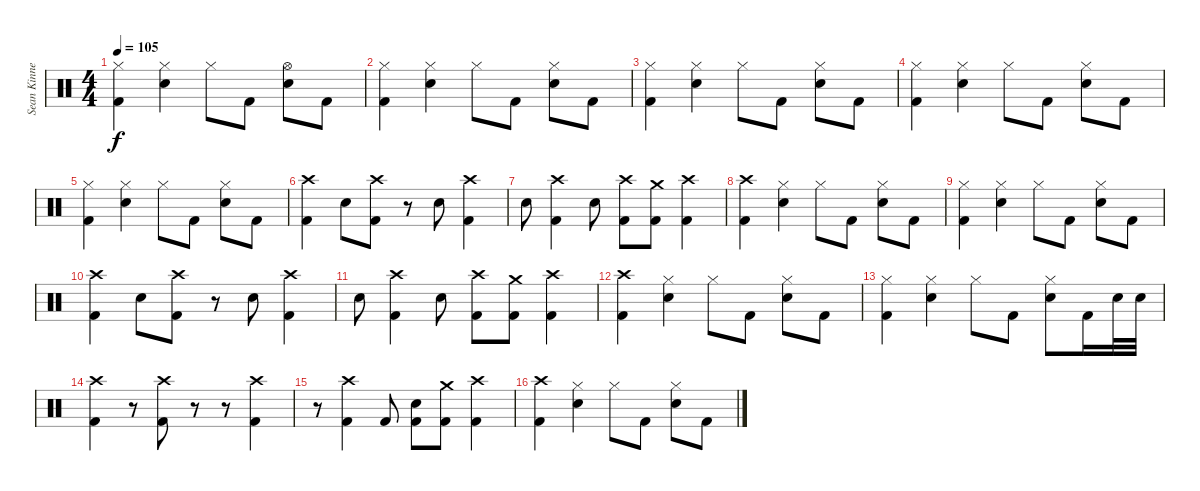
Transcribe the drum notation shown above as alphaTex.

\track ("Sean Kinney- Drums" "Sean Kinne") {instrument percussion}
\staff {score}
\articulation defaults
\ts (4 4)
\tempo 105
\clef neutral
\ks c
("Hi-Hat (closed)" "Kick (hit) 2").4{dy f} ("Hi-Hat (closed)" "Electric Snare (hit)").4 "Hi-Hat (closed)".8 "Kick (hit) 2".8 ("Hi-Hat (open)" "Electric Snare (hit)").8 "Kick (hit) 2".8 |
("Hi-Hat (closed)" "Kick (hit) 2").4 ("Hi-Hat (closed)" "Electric Snare (hit)").4 "Hi-Hat (closed)".8 "Kick (hit) 2".8 ("Hi-Hat (closed)" "Electric Snare (hit)").8 "Kick (hit) 2".8 |
("Hi-Hat (closed)" "Kick (hit) 2").4 ("Hi-Hat (closed)" "Electric Snare (hit)").4 "Hi-Hat (closed)".8 "Kick (hit) 2".8 ("Hi-Hat (closed)" "Electric Snare (hit)").8 "Kick (hit) 2".8 |
("Hi-Hat (closed)" "Kick (hit) 2").4 ("Hi-Hat (closed)" "Electric Snare (hit)").4 "Hi-Hat (closed)".8 "Kick (hit) 2".8 ("Hi-Hat (closed)" "Electric Snare (hit)").8 "Kick (hit) 2".8 |
("Hi-Hat (closed)" "Kick (hit) 2").4 ("Hi-Hat (closed)" "Electric Snare (hit)").4 "Hi-Hat (closed)".8 "Kick (hit) 2".8 ("Hi-Hat (closed)" "Electric Snare (hit)").8 "Kick (hit) 2".8 |
("Crash high (hit)" "Kick (hit) 2").4 "Electric Snare (hit)".8 ("Crash high (hit)" "Kick (hit) 2").8 r.8 "Electric Snare (hit)".8 ("Crash high (hit)" "Kick (hit) 2").4 |
"Electric Snare (hit)".8 ("Crash high (hit)" "Kick (hit) 2").4 "Electric Snare (hit)".8 ("Crash high (hit)" "Kick (hit) 2").8 ("Crash medium (hit)" "Kick (hit) 2").8 ("Crash high (hit)" "Kick (hit) 2").4 |
("Crash high (hit)" "Kick (hit) 2").4 ("Hi-Hat (closed)" "Electric Snare (hit)").4 "Hi-Hat (closed)".8 "Kick (hit) 2".8 ("Hi-Hat (closed)" "Electric Snare (hit)").8 "Kick (hit) 2".8 |
("Hi-Hat (closed)" "Kick (hit) 2").4 ("Hi-Hat (closed)" "Electric Snare (hit)").4 "Hi-Hat (closed)".8 "Kick (hit) 2".8 ("Hi-Hat (closed)" "Electric Snare (hit)").8 "Kick (hit) 2".8 |
("Crash high (hit)" "Kick (hit) 2").4 "Electric Snare (hit)".8 ("Crash high (hit)" "Kick (hit) 2").8 r.8 "Electric Snare (hit)".8 ("Crash high (hit)" "Kick (hit) 2").4 |
"Electric Snare (hit)".8 ("Crash high (hit)" "Kick (hit) 2").4 "Electric Snare (hit)".8 ("Crash high (hit)" "Kick (hit) 2").8 ("Crash medium (hit)" "Kick (hit) 2").8 ("Crash high (hit)" "Kick (hit) 2").4 |
("Crash high (hit)" "Kick (hit) 2").4 ("Hi-Hat (closed)" "Electric Snare (hit)").4 "Hi-Hat (closed)".8 "Kick (hit) 2".8 ("Hi-Hat (closed)" "Electric Snare (hit)").8 "Kick (hit) 2".8 |
("Hi-Hat (closed)" "Kick (hit) 2").4 ("Hi-Hat (closed)" "Electric Snare (hit)").4 "Hi-Hat (closed)".8 "Kick (hit) 2".8 ("Hi-Hat (closed)" "Electric Snare (hit)").8 "Kick (hit) 2".16 "Electric Snare (hit)".32 "Electric Snare (hit)".32 |
("Crash high (hit)" "Kick (hit) 2").4 r.8 ("Crash high (hit)" "Kick (hit) 2").8 r.8 r.8 ("Crash high (hit)" "Kick (hit) 2").4 |
r.8 ("Crash high (hit)" "Kick (hit) 2").4 "Kick (hit) 2".8 ("Electric Snare (hit)" "Kick (hit) 2").8 ("Crash medium (hit)" "Kick (hit) 2").8 ("Crash high (hit)" "Kick (hit) 2").4 |
("Crash high (hit)" "Kick (hit) 2").4 ("Hi-Hat (closed)" "Electric Snare (hit)").4 "Hi-Hat (closed)".8 "Kick (hit) 2".8 ("Hi-Hat (closed)" "Electric Snare (hit)").8 "Kick (hit) 2".8
